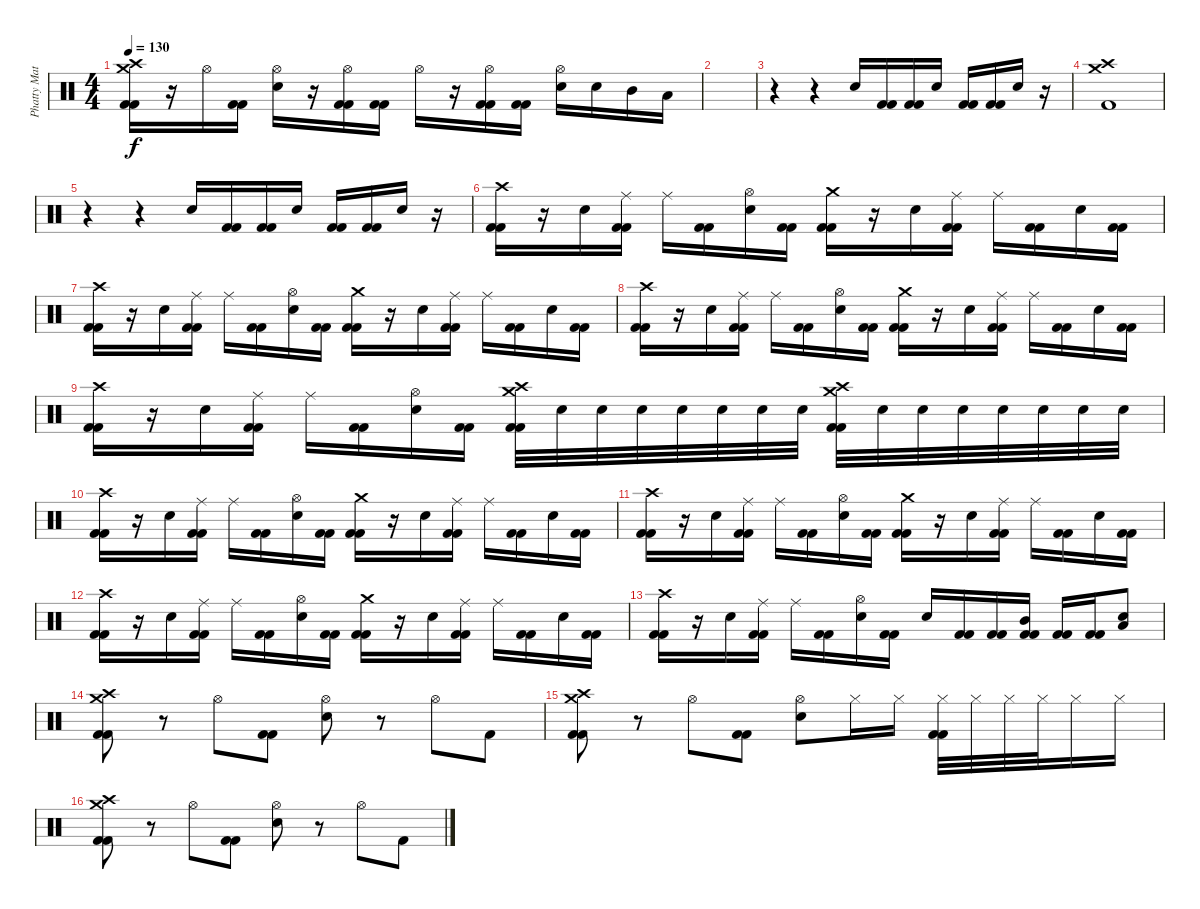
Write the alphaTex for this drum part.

\track ("Phatty Matty Withrow (Drums)" "Phatty Mat") {instrument percussion}
\staff {score}
\articulation defaults
\ts (4 4)
\tempo 130
\clef neutral
\ks c
("Crash high (hit)" "Crash medium (hit)" "Kick (hit) 2" "Kick (hit) 2").16{dy f} r.16 "Hi-Hat (open)".16 ("Kick (hit) 2" "Kick (hit) 2").16 ("Hi-Hat (open)" "Electric Snare (hit)").16 r.16 ("Hi-Hat (open)" "Kick (hit) 2" "Kick (hit) 2").16 ("Kick (hit) 2" "Kick (hit) 2").16 "Hi-Hat (open)".16 r.16 ("Hi-Hat (open)" "Kick (hit) 2" "Kick (hit) 2").16 ("Kick (hit) 2" "Kick (hit) 2").16 ("Hi-Hat (open)" "Electric Snare (hit)").16 "Electric Snare (hit)".16 "Mid Tom (hit)".16 "Low Floor Tom (hit)".16 |
|
r.4 r.4 "Electric Snare (hit)".16 ("Kick (hit) 2" "Kick (hit) 2").16 ("Kick (hit) 2" "Kick (hit) 2").16 "Electric Snare (hit)".16 ("Kick (hit) 2" "Kick (hit) 2").16 ("Kick (hit) 2" "Kick (hit) 2").16 "Electric Snare (hit)".16 r.16 |
("Crash high (hit)" "Crash medium (hit)" "Kick (hit) 2").1 |
r.4 r.4 "Electric Snare (hit)".16 ("Kick (hit) 2" "Kick (hit) 2").16 ("Kick (hit) 2" "Kick (hit) 2").16 "Electric Snare (hit)".16 ("Kick (hit) 2" "Kick (hit) 2").16 ("Kick (hit) 2" "Kick (hit) 2").16 "Electric Snare (hit)".16 r.16 |
("Crash high (hit)" "Kick (hit) 2" "Kick (hit) 2").16 r.16 "Electric Snare (hit)".16 ("Ride (middle)" "Kick (hit) 2" "Kick (hit) 2").16 "Ride (middle)".16 ("Kick (hit) 2" "Kick (hit) 2").16 ("Hi-Hat (open)" "Electric Snare (hit)").16 ("Kick (hit) 2" "Kick (hit) 2").16 ("Crash medium (hit)" "Kick (hit) 2" "Kick (hit) 2").16 r.16 "Electric Snare (hit)".16 ("Ride (middle)" "Kick (hit) 2" "Kick (hit) 2").16 "Ride (middle)".16 ("Kick (hit) 2" "Kick (hit) 2").16 "Electric Snare (hit)".16 ("Kick (hit) 2" "Kick (hit) 2").16 |
("Crash high (hit)" "Kick (hit) 2" "Kick (hit) 2").16 r.16 "Electric Snare (hit)".16 ("Ride (middle)" "Kick (hit) 2" "Kick (hit) 2").16 "Ride (middle)".16 ("Kick (hit) 2" "Kick (hit) 2").16 ("Hi-Hat (open)" "Electric Snare (hit)").16 ("Kick (hit) 2" "Kick (hit) 2").16 ("Crash medium (hit)" "Kick (hit) 2" "Kick (hit) 2").16 r.16 "Electric Snare (hit)".16 ("Ride (middle)" "Kick (hit) 2" "Kick (hit) 2").16 "Ride (middle)".16 ("Kick (hit) 2" "Kick (hit) 2").16 "Electric Snare (hit)".16 ("Kick (hit) 2" "Kick (hit) 2").16 |
("Crash high (hit)" "Kick (hit) 2" "Kick (hit) 2").16 r.16 "Electric Snare (hit)".16 ("Ride (middle)" "Kick (hit) 2" "Kick (hit) 2").16 "Ride (middle)".16 ("Kick (hit) 2" "Kick (hit) 2").16 ("Hi-Hat (open)" "Electric Snare (hit)").16 ("Kick (hit) 2" "Kick (hit) 2").16 ("Crash medium (hit)" "Kick (hit) 2" "Kick (hit) 2").16 r.16 "Electric Snare (hit)".16 ("Ride (middle)" "Kick (hit) 2" "Kick (hit) 2").16 "Ride (middle)".16 ("Kick (hit) 2" "Kick (hit) 2").16 "Electric Snare (hit)".16 ("Kick (hit) 2" "Kick (hit) 2").16 |
("Crash high (hit)" "Kick (hit) 2" "Kick (hit) 2").16 r.16 "Electric Snare (hit)".16 ("Ride (middle)" "Kick (hit) 2" "Kick (hit) 2").16 "Ride (middle)".16 ("Kick (hit) 2" "Kick (hit) 2").16 ("Hi-Hat (open)" "Electric Snare (hit)").16 ("Kick (hit) 2" "Kick (hit) 2").16 ("Crash high (hit)" "Crash medium (hit)" "Kick (hit) 2" "Kick (hit) 2").32 "Electric Snare (hit)".32 "Electric Snare (hit)".32 "Electric Snare (hit)".32 "Electric Snare (hit)".32 "Electric Snare (hit)".32 "Electric Snare (hit)".32 "Electric Snare (hit)".32 ("Crash high (hit)" "Crash medium (hit)" "Kick (hit) 2" "Kick (hit) 2").32 "Electric Snare (hit)".32 "Electric Snare (hit)".32 "Electric Snare (hit)".32 "Electric Snare (hit)".32 "Electric Snare (hit)".32 "Electric Snare (hit)".32 "Electric Snare (hit)".32 |
("Crash high (hit)" "Kick (hit) 2" "Kick (hit) 2").16 r.16 "Electric Snare (hit)".16 ("Ride (middle)" "Kick (hit) 2" "Kick (hit) 2").16 "Ride (middle)".16 ("Kick (hit) 2" "Kick (hit) 2").16 ("Hi-Hat (open)" "Electric Snare (hit)").16 ("Kick (hit) 2" "Kick (hit) 2").16 ("Crash medium (hit)" "Kick (hit) 2" "Kick (hit) 2").16 r.16 "Electric Snare (hit)".16 ("Ride (middle)" "Kick (hit) 2" "Kick (hit) 2").16 "Ride (middle)".16 ("Kick (hit) 2" "Kick (hit) 2").16 "Electric Snare (hit)".16 ("Kick (hit) 2" "Kick (hit) 2").16 |
("Crash high (hit)" "Kick (hit) 2" "Kick (hit) 2").16 r.16 "Electric Snare (hit)".16 ("Ride (middle)" "Kick (hit) 2" "Kick (hit) 2").16 "Ride (middle)".16 ("Kick (hit) 2" "Kick (hit) 2").16 ("Hi-Hat (open)" "Electric Snare (hit)").16 ("Kick (hit) 2" "Kick (hit) 2").16 ("Crash medium (hit)" "Kick (hit) 2" "Kick (hit) 2").16 r.16 "Electric Snare (hit)".16 ("Ride (middle)" "Kick (hit) 2" "Kick (hit) 2").16 "Ride (middle)".16 ("Kick (hit) 2" "Kick (hit) 2").16 "Electric Snare (hit)".16 ("Kick (hit) 2" "Kick (hit) 2").16 |
("Crash high (hit)" "Kick (hit) 2" "Kick (hit) 2").16 r.16 "Electric Snare (hit)".16 ("Ride (middle)" "Kick (hit) 2" "Kick (hit) 2").16 "Ride (middle)".16 ("Kick (hit) 2" "Kick (hit) 2").16 ("Hi-Hat (open)" "Electric Snare (hit)").16 ("Kick (hit) 2" "Kick (hit) 2").16 ("Crash medium (hit)" "Kick (hit) 2" "Kick (hit) 2").16 r.16 "Electric Snare (hit)".16 ("Ride (middle)" "Kick (hit) 2" "Kick (hit) 2").16 "Ride (middle)".16 ("Kick (hit) 2" "Kick (hit) 2").16 "Electric Snare (hit)".16 ("Kick (hit) 2" "Kick (hit) 2").16 |
("Crash high (hit)" "Kick (hit) 2" "Kick (hit) 2").16 r.16 "Electric Snare (hit)".16 ("Ride (middle)" "Kick (hit) 2" "Kick (hit) 2").16 "Ride (middle)".16 ("Kick (hit) 2" "Kick (hit) 2").16 ("Hi-Hat (open)" "Electric Snare (hit)").16 ("Kick (hit) 2" "Kick (hit) 2").16 "Electric Snare (hit)".16 ("Kick (hit) 2" "Kick (hit) 2").16 ("Kick (hit) 2" "Kick (hit) 2").16 ("Mid Tom (hit)" "Kick (hit) 2" "Kick (hit) 2").16 ("Kick (hit) 2" "Kick (hit) 2").16 ("Kick (hit) 2" "Kick (hit) 2").16 ("Electric Snare (hit)" "Low Floor Tom (hit)").8 |
("Crash high (hit)" "Crash medium (hit)" "Kick (hit) 2" "Kick (hit) 2").8 r.8 "Hi-Hat (open)".8 ("Kick (hit) 2" "Kick (hit) 2").8 ("Hi-Hat (open)" "Electric Snare (hit)").8 r.8 "Hi-Hat (open)".8 "Kick (hit) 2".8 |
("Crash high (hit)" "Crash medium (hit)" "Kick (hit) 2" "Kick (hit) 2").8 r.8 "Hi-Hat (open)".8 ("Kick (hit) 2" "Kick (hit) 2").8 ("Hi-Hat (open)" "Electric Snare (hit)").8 "Hi-Hat (closed)".16 "Hi-Hat (closed)".16 ("Hi-Hat (closed)" "Kick (hit) 2" "Kick (hit) 2").32 "Hi-Hat (closed)".32 "Hi-Hat (closed)".32 "Hi-Hat (closed)".32 "Hi-Hat (closed)".16 "Hi-Hat (closed)".16 |
("Crash high (hit)" "Crash medium (hit)" "Kick (hit) 2" "Kick (hit) 2").8 r.8 "Hi-Hat (open)".8 ("Kick (hit) 2" "Kick (hit) 2").8 ("Hi-Hat (open)" "Electric Snare (hit)").8 r.8 "Hi-Hat (open)".8 "Kick (hit) 2".8
